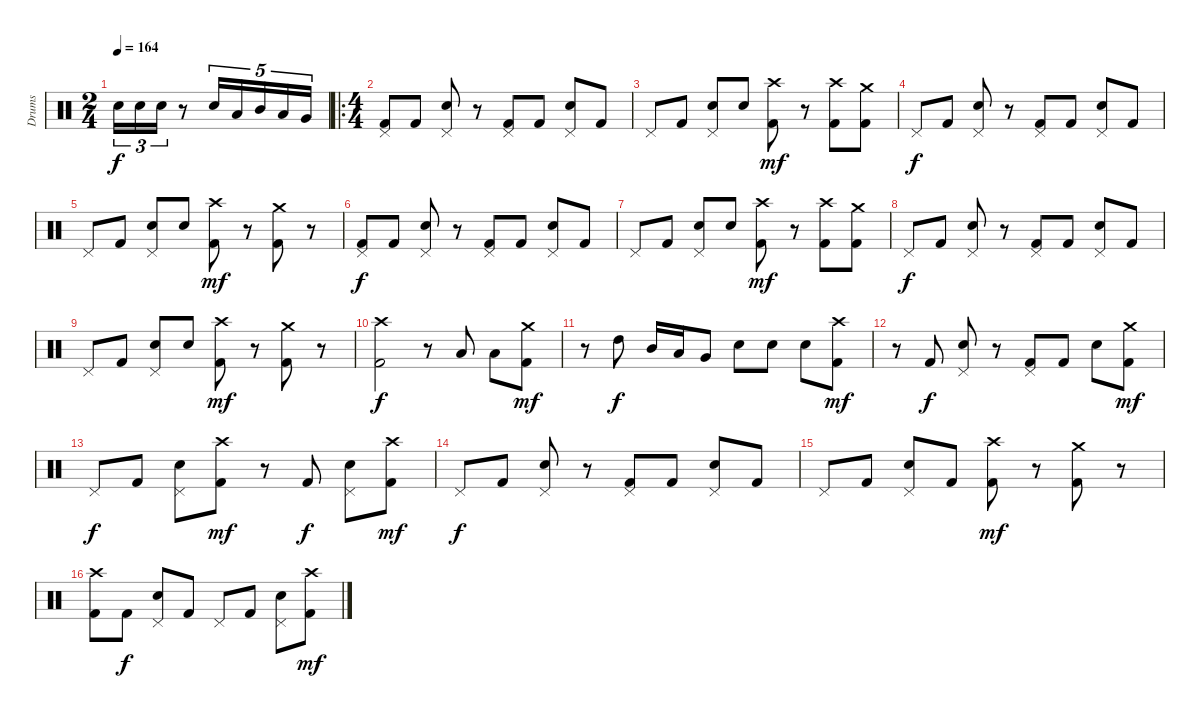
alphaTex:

\track ("Drums" "Drums") {instrument percussion}
\staff {score}
\articulation defaults
\ts (2 4)
\tempo 164
\clef neutral
\ks c "Snare (hit) 2".16{tu (3 2) dy f} "Snare (hit) 2".16{tu (3 2)} "Snare (hit) 2".16{tu (3 2)}
r.8 "Snare (hit) 2".16{tu (5 4)} "Low Tom (hit)".16{tu (5 4)} "Mid Tom (hit)".16{tu (5 4)} "Low Tom (hit)".16{tu (5 4)} "Very Low Tom (hit)".16{tu (5 4)} |
\ro
\ts (4 4)
("Pedal Hi-Hat (hit)" "Kick (hit) 2").8 "Kick (hit) 2".8 ("Pedal Hi-Hat (hit)" "Snare (hit) 2").8 r.8 ("Pedal Hi-Hat (hit)" "Kick (hit) 2").8 "Kick (hit) 2".8 ("Pedal Hi-Hat (hit)" "Snare (hit) 2").8 "Kick (hit) 2".8 |
"Pedal Hi-Hat (hit)".8 "Kick (hit) 2".8 ("Pedal Hi-Hat (hit)" "Snare (hit) 2").8 "Snare (hit) 2".8 ("Crash high (hit)" "Kick (hit) 2").8{dy mf} r.8 ("Crash high (hit)" "Kick (hit) 2").8 ("Crash medium (hit)" "Kick (hit) 2").8 |
"Pedal Hi-Hat (hit)".8{dy f} "Kick (hit) 2".8 ("Pedal Hi-Hat (hit)" "Snare (hit) 2").8 r.8 ("Pedal Hi-Hat (hit)" "Kick (hit) 2").8 "Kick (hit) 2".8 ("Pedal Hi-Hat (hit)" "Snare (hit) 2").8 "Kick (hit) 2".8 |
"Pedal Hi-Hat (hit)".8 "Kick (hit) 2".8 ("Pedal Hi-Hat (hit)" "Snare (hit) 2").8 "Snare (hit) 2".8 ("Crash high (hit)" "Kick (hit) 2").8{dy mf} r.8 ("Crash medium (hit)" "Kick (hit) 2").8 r.8 |
("Pedal Hi-Hat (hit)" "Kick (hit) 2").8{dy f} "Kick (hit) 2".8 ("Pedal Hi-Hat (hit)" "Snare (hit) 2").8 r.8 ("Pedal Hi-Hat (hit)" "Kick (hit) 2").8 "Kick (hit) 2".8 ("Pedal Hi-Hat (hit)" "Snare (hit) 2").8 "Kick (hit) 2".8 |
"Pedal Hi-Hat (hit)".8 "Kick (hit) 2".8 ("Pedal Hi-Hat (hit)" "Snare (hit) 2").8 "Snare (hit) 2".8 ("Crash high (hit)" "Kick (hit) 2").8{dy mf} r.8 ("Crash high (hit)" "Kick (hit) 2").8 ("Crash medium (hit)" "Kick (hit) 2").8 |
"Pedal Hi-Hat (hit)".8{dy f} "Kick (hit) 2".8 ("Pedal Hi-Hat (hit)" "Snare (hit) 2").8 r.8 ("Pedal Hi-Hat (hit)" "Kick (hit) 2").8 "Kick (hit) 2".8 ("Pedal Hi-Hat (hit)" "Snare (hit) 2").8 "Kick (hit) 2".8 |
"Pedal Hi-Hat (hit)".8 "Kick (hit) 2".8 ("Pedal Hi-Hat (hit)" "Snare (hit) 2").8 "Snare (hit) 2".8 ("Crash high (hit)" "Kick (hit) 2").8{dy mf} r.8 ("Crash medium (hit)" "Kick (hit) 2").8 r.8 |
("Crash high (hit)" "Kick (hit) 2").2{dy f} r.8 "Low Tom (hit)".8 "Low Tom (hit)".8 ("Crash medium (hit)" "Kick (hit) 2").8{dy mf} |
r.8 "High Tom (hit)".8{dy f} "Mid Tom (hit)".16 "Low Tom (hit)".16 "Very Low Tom (hit)".8 "Snare (hit) 2".8 "Snare (hit) 2".8 "Snare (hit) 2".8 ("Crash high (hit)" "Kick (hit) 2").8{dy mf} |
r.8 "Kick (hit) 2".8{dy f} ("Pedal Hi-Hat (hit)" "Snare (hit) 2").8 r.8 ("Pedal Hi-Hat (hit)" "Kick (hit) 2").8 "Kick (hit) 2".8 "Snare (hit) 2".8 ("Crash medium (hit)" "Kick (hit) 2").8{dy mf} |
"Pedal Hi-Hat (hit)".8{dy f} "Kick (hit) 2".8 ("Pedal Hi-Hat (hit)" "Snare (hit) 2").8 ("Crash high (hit)" "Kick (hit) 2").8{dy mf} r.8 "Kick (hit) 2".8{dy f} ("Pedal Hi-Hat (hit)" "Snare (hit) 2").8 ("Crash high (hit)" "Kick (hit) 2").8{dy mf} |
"Pedal Hi-Hat (hit)".8{dy f} "Kick (hit) 2".8 ("Pedal Hi-Hat (hit)" "Snare (hit) 2").8 r.8 ("Pedal Hi-Hat (hit)" "Kick (hit) 2").8 "Kick (hit) 2".8 ("Pedal Hi-Hat (hit)" "Snare (hit) 2").8 "Kick (hit) 2".8 |
"Pedal Hi-Hat (hit)".8 "Kick (hit) 2".8 ("Pedal Hi-Hat (hit)" "Snare (hit) 2").8 "Kick (hit) 2".8 ("Crash high (hit)" "Kick (hit) 2").8{dy mf} r.8 ("Crash medium (hit)" "Kick (hit) 2").8 r.8 |
("Crash high (hit)" "Kick (hit) 2").8 "Kick (hit) 2".8{dy f} ("Pedal Hi-Hat (hit)" "Snare (hit) 2").8 "Kick (hit) 2".8 "Pedal Hi-Hat (hit)".8 "Kick (hit) 2".8 ("Pedal Hi-Hat (hit)" "Snare (hit) 2").8 ("Crash high (hit)" "Kick (hit) 2").8{dy mf}
